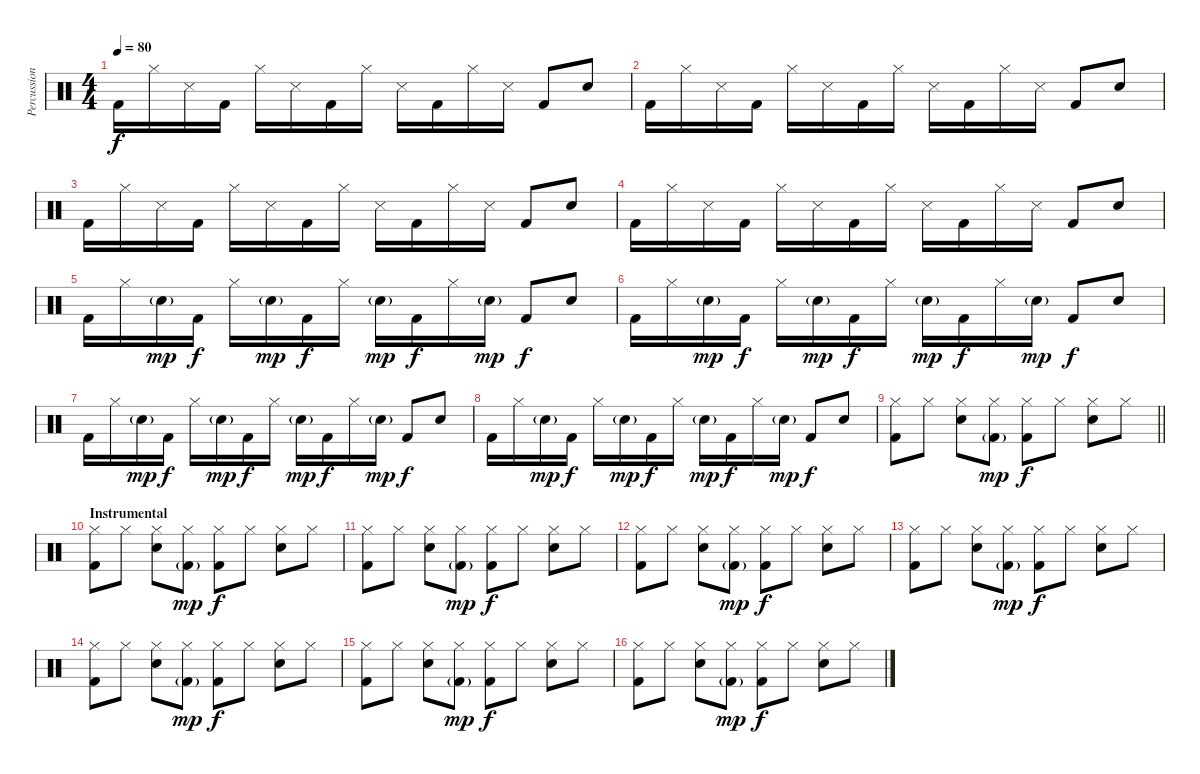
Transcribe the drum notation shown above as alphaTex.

\track ("Percussion" "Percussion") {instrument percussion}
\staff {score}
\articulation defaults
\ts (4 4)
\tempo 80
\clef neutral
\ks c "Kick (hit) 2".16{dy f} "Hi-Hat (closed)".16 "Snare (side stick) 3".16 "Kick (hit) 2".16 "Hi-Hat (closed)".16 "Snare (side stick) 3".16 "Kick (hit) 2".16 "Hi-Hat (closed)".16 "Snare (side stick) 3".16 "Kick (hit) 2".16 "Hi-Hat (closed)".16 "Snare (side stick) 3".16 "Kick (hit) 2".8 "Snare (hit) 2".8
|
"Kick (hit) 2".16 "Hi-Hat (closed)".16 "Snare (side stick) 3".16 "Kick (hit) 2".16 "Hi-Hat (closed)".16 "Snare (side stick) 3".16 "Kick (hit) 2".16 "Hi-Hat (closed)".16 "Snare (side stick) 3".16 "Kick (hit) 2".16 "Hi-Hat (closed)".16 "Snare (side stick) 3".16 "Kick (hit) 2".8 "Snare (hit) 2".8 |
"Kick (hit) 2".16 "Hi-Hat (closed)".16 "Snare (side stick) 3".16 "Kick (hit) 2".16 "Hi-Hat (closed)".16 "Snare (side stick) 3".16 "Kick (hit) 2".16 "Hi-Hat (closed)".16 "Snare (side stick) 3".16 "Kick (hit) 2".16 "Hi-Hat (closed)".16 "Snare (side stick) 3".16 "Kick (hit) 2".8 "Snare (hit) 2".8 |
"Kick (hit) 2".16 "Hi-Hat (closed)".16 "Snare (side stick) 3".16 "Kick (hit) 2".16 "Hi-Hat (closed)".16 "Snare (side stick) 3".16 "Kick (hit) 2".16 "Hi-Hat (closed)".16 "Snare (side stick) 3".16 "Kick (hit) 2".16 "Hi-Hat (closed)".16 "Snare (side stick) 3".16 "Kick (hit) 2".8 "Snare (hit) 2".8 |
"Kick (hit) 2".16 "Hi-Hat (closed)".16 "Snare (hit) 2"{g}.16{dy mp} "Kick (hit) 2".16{dy f} "Hi-Hat (closed)".16 "Snare (hit) 2"{g}.16{dy mp} "Kick (hit) 2".16{dy f} "Hi-Hat (closed)".16 "Snare (hit) 2"{g}.16{dy mp} "Kick (hit) 2".16{dy f} "Hi-Hat (closed)".16 "Snare (hit) 2"{g}.16{dy mp} "Kick (hit) 2".8{dy f} "Snare (hit) 2".8 |
"Kick (hit) 2".16 "Hi-Hat (closed)".16 "Snare (hit) 2"{g}.16{dy mp} "Kick (hit) 2".16{dy f} "Hi-Hat (closed)".16 "Snare (hit) 2"{g}.16{dy mp} "Kick (hit) 2".16{dy f} "Hi-Hat (closed)".16 "Snare (hit) 2"{g}.16{dy mp} "Kick (hit) 2".16{dy f} "Hi-Hat (closed)".16 "Snare (hit) 2"{g}.16{dy mp} "Kick (hit) 2".8{dy f} "Snare (hit) 2".8 |
"Kick (hit) 2".16 "Hi-Hat (closed)".16 "Snare (hit) 2"{g}.16{dy mp} "Kick (hit) 2".16{dy f} "Hi-Hat (closed)".16 "Snare (hit) 2"{g}.16{dy mp} "Kick (hit) 2".16{dy f} "Hi-Hat (closed)".16 "Snare (hit) 2"{g}.16{dy mp} "Kick (hit) 2".16{dy f} "Hi-Hat (closed)".16 "Snare (hit) 2"{g}.16{dy mp} "Kick (hit) 2".8{dy f} "Snare (hit) 2".8 |
"Kick (hit) 2".16 "Hi-Hat (closed)".16 "Snare (hit) 2"{g}.16{dy mp} "Kick (hit) 2".16{dy f} "Hi-Hat (closed)".16 "Snare (hit) 2"{g}.16{dy mp} "Kick (hit) 2".16{dy f} "Hi-Hat (closed)".16 "Snare (hit) 2"{g}.16{dy mp} "Kick (hit) 2".16{dy f} "Hi-Hat (closed)".16 "Snare (hit) 2"{g}.16{dy mp} "Kick (hit) 2".8{dy f} "Snare (hit) 2".8 |
\barLineRight lightlight
("Hi-Hat (closed)" "Kick (hit) 2").8 "Hi-Hat (closed)".8 ("Hi-Hat (closed)" "Snare (hit) 2").8 ("Hi-Hat (closed)" "Kick (hit) 2"{g}).8{dy mp} ("Hi-Hat (closed)" "Kick (hit) 2").8{dy f} "Hi-Hat (closed)".8 ("Hi-Hat (closed)" "Snare (hit) 2").8 "Hi-Hat (closed)".8 |
\section ("" "Instrumental")
("Hi-Hat (closed)" "Kick (hit) 2").8 "Hi-Hat (closed)".8 ("Hi-Hat (closed)" "Snare (hit) 2").8 ("Hi-Hat (closed)" "Kick (hit) 2"{g}).8{dy mp} ("Hi-Hat (closed)" "Kick (hit) 2").8{dy f} "Hi-Hat (closed)".8 ("Hi-Hat (closed)" "Snare (hit) 2").8 "Hi-Hat (closed)".8 |
("Hi-Hat (closed)" "Kick (hit) 2").8 "Hi-Hat (closed)".8 ("Hi-Hat (closed)" "Snare (hit) 2").8 ("Hi-Hat (closed)" "Kick (hit) 2"{g}).8{dy mp} ("Hi-Hat (closed)" "Kick (hit) 2").8{dy f} "Hi-Hat (closed)".8 ("Hi-Hat (closed)" "Snare (hit) 2").8 "Hi-Hat (closed)".8 |
("Hi-Hat (closed)" "Kick (hit) 2").8 "Hi-Hat (closed)".8 ("Hi-Hat (closed)" "Snare (hit) 2").8 ("Hi-Hat (closed)" "Kick (hit) 2"{g}).8{dy mp} ("Hi-Hat (closed)" "Kick (hit) 2").8{dy f} "Hi-Hat (closed)".8 ("Hi-Hat (closed)" "Snare (hit) 2").8 "Hi-Hat (closed)".8 |
("Hi-Hat (closed)" "Kick (hit) 2").8 "Hi-Hat (closed)".8 ("Hi-Hat (closed)" "Snare (hit) 2").8 ("Hi-Hat (closed)" "Kick (hit) 2"{g}).8{dy mp} ("Hi-Hat (closed)" "Kick (hit) 2").8{dy f} "Hi-Hat (closed)".8 ("Hi-Hat (closed)" "Snare (hit) 2").8 "Hi-Hat (closed)".8 |
("Hi-Hat (closed)" "Kick (hit) 2").8 "Hi-Hat (closed)".8 ("Hi-Hat (closed)" "Snare (hit) 2").8 ("Hi-Hat (closed)" "Kick (hit) 2"{g}).8{dy mp} ("Hi-Hat (closed)" "Kick (hit) 2").8{dy f} "Hi-Hat (closed)".8 ("Hi-Hat (closed)" "Snare (hit) 2").8 "Hi-Hat (closed)".8 |
("Hi-Hat (closed)" "Kick (hit) 2").8 "Hi-Hat (closed)".8 ("Hi-Hat (closed)" "Snare (hit) 2").8 ("Hi-Hat (closed)" "Kick (hit) 2"{g}).8{dy mp} ("Hi-Hat (closed)" "Kick (hit) 2").8{dy f} "Hi-Hat (closed)".8 ("Hi-Hat (closed)" "Snare (hit) 2").8 "Hi-Hat (closed)".8 |
("Hi-Hat (closed)" "Kick (hit) 2").8 "Hi-Hat (closed)".8 ("Hi-Hat (closed)" "Snare (hit) 2").8 ("Hi-Hat (closed)" "Kick (hit) 2"{g}).8{dy mp} ("Hi-Hat (closed)" "Kick (hit) 2").8{dy f} "Hi-Hat (closed)".8 ("Hi-Hat (closed)" "Snare (hit) 2").8 "Hi-Hat (closed)".8
